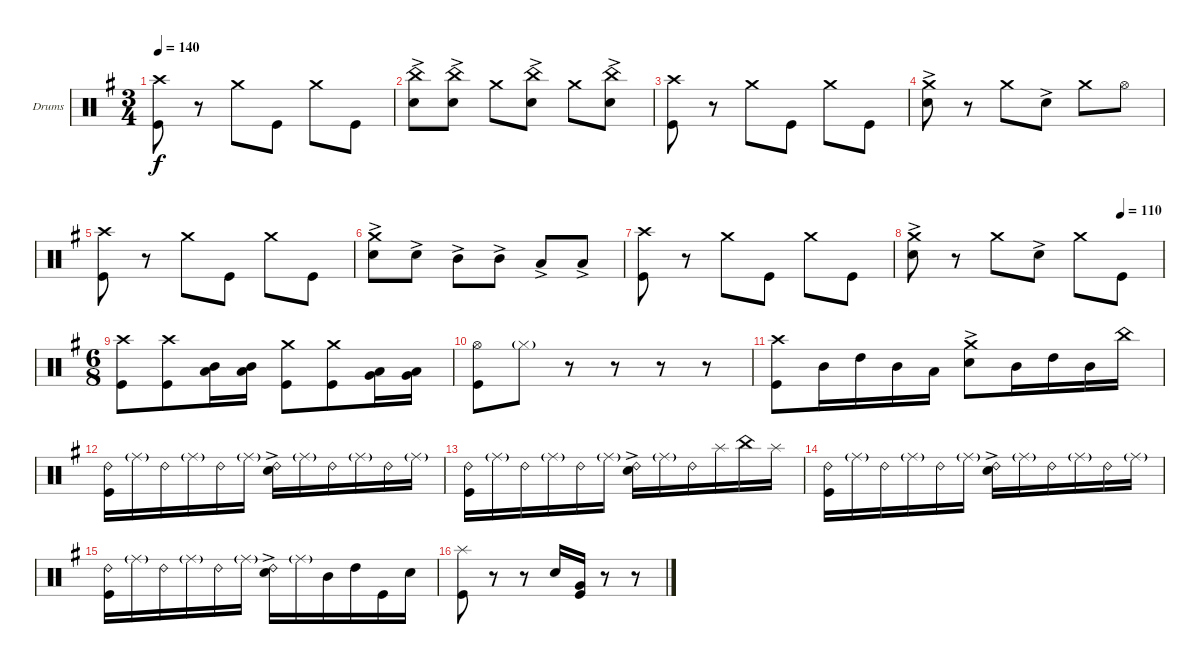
\bracketExtendMode groupsimilarinstruments
\firstSystemTrackNameOrientation horizontal
\otherSystemsTrackNameOrientation horizontal
\track ("Drumkit" "Drums") {instrument percussion}
\staff {score}
\articulation defaults
\ts (3 4)
\tempo 140
\clef neutral
\ks eminor
("Kick (hit)" "Crash high (hit)").8{dy f} r.8 "Crash medium (hit)".8 "Kick (hit)".8 "Crash medium (hit)".8 "Kick (hit)".8 |
("Snare (hit) 2"{ac} "China (hit)").8 ("Snare (hit) 2"{ac} "China (hit)").8 "Crash medium (hit)".8 ("Snare (hit) 2"{ac} "China (hit)").8 "Crash medium (hit)".8 ("Snare (hit) 2"{ac} "China (hit)").8 |
("Kick (hit)" "Crash high (hit)").8 r.8 "Crash medium (hit)".8 "Kick (hit)".8 "Crash medium (hit)".8 "Kick (hit)".8 |
("Crash medium (hit)" "Snare (hit) 2"{ac}).8 r.8 "Crash medium (hit)".8 "Snare (hit) 2"{ac}.8 "Crash medium (hit)".8 "Hi-Hat (open)".8 |
("Kick (hit)" "Crash high (hit)").8 r.8 "Crash medium (hit)".8 "Kick (hit)".8 "Crash medium (hit)".8 "Kick (hit)".8 |
("Crash medium (hit)" "Snare (hit) 2"{ac}).8 "Snare (hit) 2"{ac}.8 "Mid Tom (hit)"{ac}.8 "Mid Tom (hit)"{ac}.8 "Low Tom (hit)"{ac}.8 "Low Tom (hit)"{ac}.8 |
("Kick (hit)" "Crash high (hit)").8 r.8 "Crash medium (hit)".8 "Kick (hit)".8 "Crash medium (hit)".8 "Kick (hit)".8 |
\tempo (110 0.833333)
("Crash medium (hit)" "Snare (hit) 2"{ac}).8 r.8 "Crash medium (hit)".8 "Snare (hit) 2"{ac}.8 "Crash medium (hit)".8 "Kick (hit)".8 |
\ts (6 8)
("Kick (hit)" "Crash high (hit)").8 ("Kick (hit)" "Crash high (hit)").8 ("Mid Tom (hit)" "Low Tom (hit)").16 ("Low Tom (hit)" "Mid Tom (hit)").16 ("Kick (hit)" "Crash medium (hit)").8 ("Kick (hit)" "Crash medium (hit)").8 ("Low Tom (hit)" "Very Low Tom (hit)").16 ("Low Tom (hit)" "Very Low Tom (hit)").16 |
("Hi-Hat (open)" "Kick (hit)").8 "Hi-Hat (closed)"{g}.8 r.8 r.8 r.8 r.8 |
("Kick (hit)" "Crash high (hit)").8 "Mid Tom (hit)".16 "High Tom (hit)".16 "Mid Tom (hit)".16 "Low Tom (hit)".16 ("Snare (hit) 2"{ac} "Crash medium (hit)").8 "Mid Tom (hit)".16 "High Tom (hit)".16 "Mid Tom (hit)".16 "China (hit)".16 |
("Ride (bell) 2" "Kick (hit)").16 "Ride (middle)"{g}.16 "Ride (bell) 2".16 "Ride (middle)"{g}.16 "Ride (bell) 2".16 "Ride (middle)"{g}.16 ("Ride (bell) 2" "Snare (hit) 2"{ac}).16 "Ride (middle)"{g}.16 "Ride (bell) 2".16 "Ride (middle)"{g}.16 "Ride (bell) 2".16 "Ride (middle)"{g}.16 |
("Ride (bell) 2" "Kick (hit)").16 "Ride (middle)"{g}.16 "Ride (bell) 2".16 "Ride (middle)"{g}.16 "Ride (bell) 2".16 "Ride (middle)"{g}.16 ("Ride (bell) 2" "Snare (hit) 2"{ac}).16 "Ride (middle)"{g}.16 "Ride (bell) 2".16 "Splash (hit)".16 "China (hit)".16 "Splash (hit)".16 |
("Ride (bell) 2" "Kick (hit)").16 "Ride (middle)"{g}.16 "Ride (bell) 2".16 "Ride (middle)"{g}.16 "Ride (bell) 2".16 "Ride (middle)"{g}.16 ("Ride (bell) 2" "Snare (hit) 2"{ac}).16 "Ride (middle)"{g}.16 "Ride (bell) 2".16 "Ride (middle)"{g}.16 "Ride (bell) 2".16 "Ride (middle)"{g}.16 |
("Ride (bell) 2" "Kick (hit)").16 "Ride (middle)"{g}.16 "Ride (bell) 2".16 "Ride (middle)"{g}.16 "Ride (bell) 2".16 "Ride (middle)"{g}.16 ("Ride (bell) 2" "Snare (hit) 2"{ac}).16 "Ride (middle)"{g}.16 "Mid Tom (hit)".16 "High Tom (hit)".16 "Kick (hit)".16 "Snare (hit) 2".16 |
("Kick (hit)" "Splash (hit)").8 r.8 r.8 "Snare (hit) 2".16 ("Very Low Tom (hit)" "Kick (hit)").16 r.8 r.8
